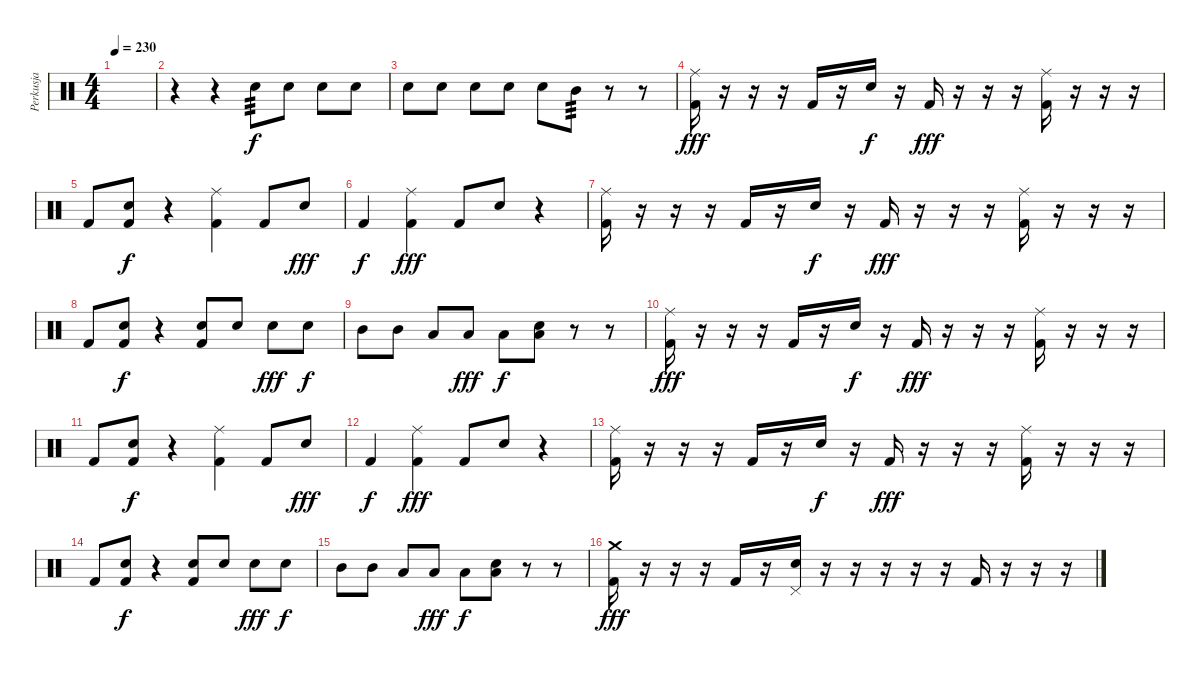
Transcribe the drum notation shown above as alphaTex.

\track ("Perkusja" "Perkusja") {instrument percussion}
\staff {score}
\articulation defaults
\ts (4 4)
\tempo 230
\clef neutral
\ks c
|
r.4 r.4 "Snare (hit) 2".8{tp 3} "Snare (hit) 2".8 "Snare (hit) 2".8 "Snare (hit) 2".8 |
"Snare (hit) 2".8 "Snare (hit) 2".8 "Snare (hit) 2".8 "Snare (hit) 2".8 "Snare (hit) 2".8 "Mid Tom (hit)".8{tp 3} r.8 r.8 |
("Ride (middle)" "Kick (hit) 2").16{dy fff} r.16 r.16 r.16 "Kick (hit) 2".16 r.16 "Snare (hit) 2".16{dy f} r.16 "Kick (hit) 2".16{dy fff} r.16 r.16 r.16 ("Ride (middle)" "Kick (hit) 2").16 r.16 r.16 r.16 |
"Kick (hit) 2".8 ("Snare (hit) 2" "Kick (hit) 2").8{dy f} r.4 ("Ride (middle)" "Kick (hit) 2").4 "Kick (hit) 2".8 "Snare (hit) 2".8{dy fff} |
"Kick (hit) 2".4{dy f} ("Ride (middle)" "Kick (hit) 2").4{dy fff} "Kick (hit) 2".8 "Snare (hit) 2".8 r.4 |
("Ride (middle)" "Kick (hit) 2").16 r.16 r.16 r.16 "Kick (hit) 2".16 r.16 "Snare (hit) 2".16{dy f} r.16 "Kick (hit) 2".16{dy fff} r.16 r.16 r.16 ("Ride (middle)" "Kick (hit) 2").16 r.16 r.16 r.16 |
"Kick (hit) 2".8 ("Snare (hit) 2" "Kick (hit) 2").8{dy f} r.4 ("Snare (hit) 2" "Kick (hit) 2").8 "Snare (hit) 2".8 "Snare (hit) 2".8{dy fff} "Snare (hit) 2".8{dy f} |
"Mid Tom (hit)".8 "Mid Tom (hit)".8 "Low Tom (hit)".8 "Low Tom (hit)".8{dy fff} "Low Tom (hit)".8{dy f} ("Snare (hit) 2" "Low Tom (hit)").8 r.8 r.8 |
("Ride (middle)" "Kick (hit) 2").16{dy fff} r.16 r.16 r.16 "Kick (hit) 2".16 r.16 "Snare (hit) 2".16{dy f} r.16 "Kick (hit) 2".16{dy fff} r.16 r.16 r.16 ("Ride (middle)" "Kick (hit) 2").16 r.16 r.16 r.16 |
"Kick (hit) 2".8 ("Snare (hit) 2" "Kick (hit) 2").8{dy f} r.4 ("Ride (middle)" "Kick (hit) 2").4 "Kick (hit) 2".8 "Snare (hit) 2".8{dy fff} |
"Kick (hit) 2".4{dy f} ("Ride (middle)" "Kick (hit) 2").4{dy fff} "Kick (hit) 2".8 "Snare (hit) 2".8 r.4 |
("Ride (middle)" "Kick (hit) 2").16 r.16 r.16 r.16 "Kick (hit) 2".16 r.16 "Snare (hit) 2".16{dy f} r.16 "Kick (hit) 2".16{dy fff} r.16 r.16 r.16 ("Ride (middle)" "Kick (hit) 2").16 r.16 r.16 r.16 |
"Kick (hit) 2".8 ("Snare (hit) 2" "Kick (hit) 2").8{dy f} r.4 ("Snare (hit) 2" "Kick (hit) 2").8 "Snare (hit) 2".8 "Snare (hit) 2".8{dy fff} "Snare (hit) 2".8{dy f} |
"Mid Tom (hit)".8 "Mid Tom (hit)".8 "Low Tom (hit)".8 "Low Tom (hit)".8{dy fff} "Low Tom (hit)".8{dy f} ("Snare (hit) 2" "Low Tom (hit)").8 r.8 r.8 |
("Crash medium (hit)" "Kick (hit) 2").16{dy fff} r.16 r.16 r.16 "Kick (hit) 2".16 r.16 ("Snare (hit) 2" "Pedal Hi-Hat (hit)").16 r.16 r.16 r.16 r.16 r.16 "Kick (hit) 2".16 r.16 r.16 r.16
